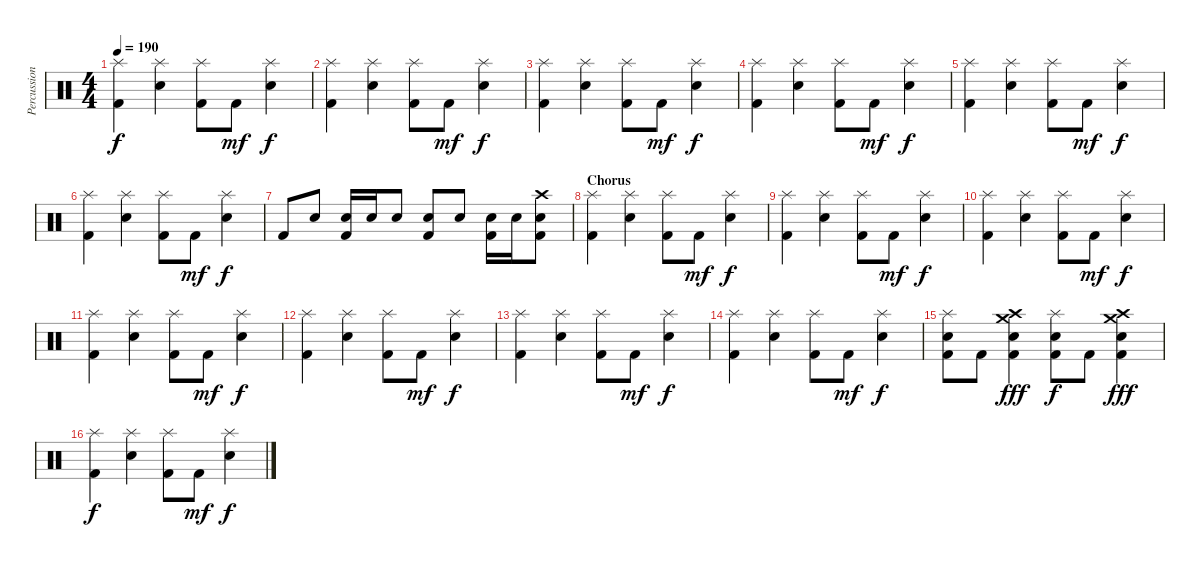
\track ("Percussion" "Percussion") {instrument percussion}
\staff {score}
\articulation defaults
\ts (4 4)
\tempo 190
\clef neutral
\ks c
("Splash (hit)" "Kick (hit) 2").4{dy f} ("Splash (hit)" "Electric Snare (hit)").4 ("Splash (hit)" "Kick (hit) 2").8 "Kick (hit) 2".8{dy mf} ("Splash (hit)" "Electric Snare (hit)").4{dy f} |
("Splash (hit)" "Kick (hit) 2").4 ("Splash (hit)" "Electric Snare (hit)").4 ("Splash (hit)" "Kick (hit) 2").8 "Kick (hit) 2".8{dy mf} ("Splash (hit)" "Electric Snare (hit)").4{dy f} |
("Splash (hit)" "Kick (hit) 2").4 ("Splash (hit)" "Electric Snare (hit)").4 ("Splash (hit)" "Kick (hit) 2").8 "Kick (hit) 2".8{dy mf} ("Splash (hit)" "Electric Snare (hit)").4{dy f} |
("Splash (hit)" "Kick (hit) 2").4 ("Splash (hit)" "Electric Snare (hit)").4 ("Splash (hit)" "Kick (hit) 2").8 "Kick (hit) 2".8{dy mf} ("Splash (hit)" "Electric Snare (hit)").4{dy f} |
("Splash (hit)" "Kick (hit) 2").4 ("Splash (hit)" "Electric Snare (hit)").4 ("Splash (hit)" "Kick (hit) 2").8 "Kick (hit) 2".8{dy mf} ("Splash (hit)" "Electric Snare (hit)").4{dy f} |
("Splash (hit)" "Kick (hit) 2").4 ("Splash (hit)" "Electric Snare (hit)").4 ("Splash (hit)" "Kick (hit) 2").8 "Kick (hit) 2".8{dy mf} ("Splash (hit)" "Electric Snare (hit)").4{dy f} |
"Kick (hit) 2".8 "Electric Snare (hit)".8 ("Electric Snare (hit)" "Kick (hit) 2").16 "Electric Snare (hit)".16 "Electric Snare (hit)".8 ("Electric Snare (hit)" "Kick (hit) 2").8 "Electric Snare (hit)".8 ("Electric Snare (hit)" "Kick (hit) 2").16 "Electric Snare (hit)".16 ("Crash high (hit)" "Electric Snare (hit)" "Kick (hit) 2").8 |
\section ("" "Chorus")
("Splash (hit)" "Kick (hit) 2").4 ("Splash (hit)" "Electric Snare (hit)").4 ("Splash (hit)" "Kick (hit) 2").8 "Kick (hit) 2".8{dy mf} ("Splash (hit)" "Electric Snare (hit)").4{dy f} |
("Splash (hit)" "Kick (hit) 2").4 ("Splash (hit)" "Electric Snare (hit)").4 ("Splash (hit)" "Kick (hit) 2").8 "Kick (hit) 2".8{dy mf} ("Splash (hit)" "Electric Snare (hit)").4{dy f} |
("Splash (hit)" "Kick (hit) 2").4 ("Splash (hit)" "Electric Snare (hit)").4 ("Splash (hit)" "Kick (hit) 2").8 "Kick (hit) 2".8{dy mf} ("Splash (hit)" "Electric Snare (hit)").4{dy f} |
("Splash (hit)" "Kick (hit) 2").4 ("Splash (hit)" "Electric Snare (hit)").4 ("Splash (hit)" "Kick (hit) 2").8 "Kick (hit) 2".8{dy mf} ("Splash (hit)" "Electric Snare (hit)").4{dy f} |
("Splash (hit)" "Kick (hit) 2").4 ("Splash (hit)" "Electric Snare (hit)").4 ("Splash (hit)" "Kick (hit) 2").8 "Kick (hit) 2".8{dy mf} ("Splash (hit)" "Electric Snare (hit)").4{dy f} |
("Splash (hit)" "Kick (hit) 2").4 ("Splash (hit)" "Electric Snare (hit)").4 ("Splash (hit)" "Kick (hit) 2").8 "Kick (hit) 2".8{dy mf} ("Splash (hit)" "Electric Snare (hit)").4{dy f} |
("Splash (hit)" "Kick (hit) 2").4 ("Splash (hit)" "Electric Snare (hit)").4 ("Splash (hit)" "Kick (hit) 2").8 "Kick (hit) 2".8{dy mf} ("Splash (hit)" "Electric Snare (hit)").4{dy f} |
("Splash (hit)" "Electric Snare (hit)" "Kick (hit) 2").8 "Kick (hit) 2".8 ("Crash high (hit)" "Crash medium (hit)" "Electric Snare (hit)" "Kick (hit) 2").4{dy fff} ("Splash (hit)" "Electric Snare (hit)" "Kick (hit) 2").8{dy f} "Kick (hit) 2".8 ("Crash medium (hit)" "Crash high (hit)" "Electric Snare (hit)" "Kick (hit) 2").4{dy fff} |
("Splash (hit)" "Kick (hit) 2").4{dy f} ("Splash (hit)" "Electric Snare (hit)").4 ("Splash (hit)" "Kick (hit) 2").8 "Kick (hit) 2".8{dy mf} ("Splash (hit)" "Electric Snare (hit)").4{dy f}
